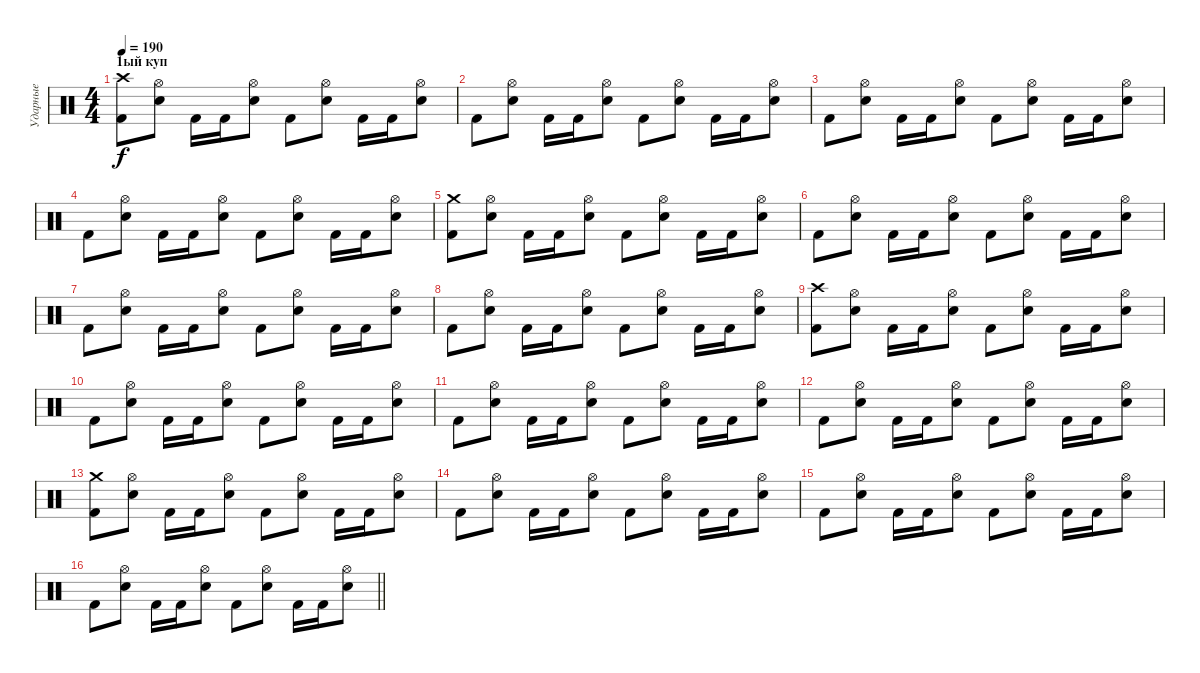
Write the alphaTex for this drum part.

\track ("Ударные" "Ударные") {instrument percussion}
\staff {score}
\articulation defaults
\ts (4 4)
\section ("" "1ый куп")
\tempo 190
\clef neutral
\ks c
("Crash high (hit)" "Kick (hit) 2").8{dy f} ("Hi-Hat (open)" "Electric Snare (hit)").8 "Kick (hit) 2".16 "Kick (hit) 2".16 ("Hi-Hat (open)" "Electric Snare (hit)").8 "Kick (hit) 2".8 ("Hi-Hat (open)" "Electric Snare (hit)").8 "Kick (hit) 2".16 "Kick (hit) 2".16 ("Hi-Hat (open)" "Electric Snare (hit)").8 |
"Kick (hit) 2".8 ("Hi-Hat (open)" "Electric Snare (hit)").8 "Kick (hit) 2".16 "Kick (hit) 2".16 ("Hi-Hat (open)" "Electric Snare (hit)").8 "Kick (hit) 2".8 ("Hi-Hat (open)" "Electric Snare (hit)").8 "Kick (hit) 2".16 "Kick (hit) 2".16 ("Hi-Hat (open)" "Electric Snare (hit)").8 |
"Kick (hit) 2".8 ("Hi-Hat (open)" "Electric Snare (hit)").8 "Kick (hit) 2".16 "Kick (hit) 2".16 ("Hi-Hat (open)" "Electric Snare (hit)").8 "Kick (hit) 2".8 ("Hi-Hat (open)" "Electric Snare (hit)").8 "Kick (hit) 2".16 "Kick (hit) 2".16 ("Hi-Hat (open)" "Electric Snare (hit)").8 |
"Kick (hit) 2".8 ("Hi-Hat (open)" "Electric Snare (hit)").8 "Kick (hit) 2".16 "Kick (hit) 2".16 ("Hi-Hat (open)" "Electric Snare (hit)").8 "Kick (hit) 2".8 ("Hi-Hat (open)" "Electric Snare (hit)").8 "Kick (hit) 2".16 "Kick (hit) 2".16 ("Hi-Hat (open)" "Electric Snare (hit)").8 |
("Crash medium (hit)" "Kick (hit) 2").8 ("Hi-Hat (open)" "Electric Snare (hit)").8 "Kick (hit) 2".16 "Kick (hit) 2".16 ("Hi-Hat (open)" "Electric Snare (hit)").8 "Kick (hit) 2".8 ("Hi-Hat (open)" "Electric Snare (hit)").8 "Kick (hit) 2".16 "Kick (hit) 2".16 ("Hi-Hat (open)" "Electric Snare (hit)").8 |
"Kick (hit) 2".8 ("Hi-Hat (open)" "Electric Snare (hit)").8 "Kick (hit) 2".16 "Kick (hit) 2".16 ("Hi-Hat (open)" "Electric Snare (hit)").8 "Kick (hit) 2".8 ("Hi-Hat (open)" "Electric Snare (hit)").8 "Kick (hit) 2".16 "Kick (hit) 2".16 ("Hi-Hat (open)" "Electric Snare (hit)").8 |
"Kick (hit) 2".8 ("Hi-Hat (open)" "Electric Snare (hit)").8 "Kick (hit) 2".16 "Kick (hit) 2".16 ("Hi-Hat (open)" "Electric Snare (hit)").8 "Kick (hit) 2".8 ("Hi-Hat (open)" "Electric Snare (hit)").8 "Kick (hit) 2".16 "Kick (hit) 2".16 ("Hi-Hat (open)" "Electric Snare (hit)").8 |
"Kick (hit) 2".8 ("Hi-Hat (open)" "Electric Snare (hit)").8 "Kick (hit) 2".16 "Kick (hit) 2".16 ("Hi-Hat (open)" "Electric Snare (hit)").8 "Kick (hit) 2".8 ("Hi-Hat (open)" "Electric Snare (hit)").8 "Kick (hit) 2".16 "Kick (hit) 2".16 ("Hi-Hat (open)" "Electric Snare (hit)").8 |
("Crash high (hit)" "Kick (hit) 2").8 ("Hi-Hat (open)" "Electric Snare (hit)").8 "Kick (hit) 2".16 "Kick (hit) 2".16 ("Hi-Hat (open)" "Electric Snare (hit)").8 "Kick (hit) 2".8 ("Hi-Hat (open)" "Electric Snare (hit)").8 "Kick (hit) 2".16 "Kick (hit) 2".16 ("Hi-Hat (open)" "Electric Snare (hit)").8 |
"Kick (hit) 2".8 ("Hi-Hat (open)" "Electric Snare (hit)").8 "Kick (hit) 2".16 "Kick (hit) 2".16 ("Hi-Hat (open)" "Electric Snare (hit)").8 "Kick (hit) 2".8 ("Hi-Hat (open)" "Electric Snare (hit)").8 "Kick (hit) 2".16 "Kick (hit) 2".16 ("Hi-Hat (open)" "Electric Snare (hit)").8 |
"Kick (hit) 2".8 ("Hi-Hat (open)" "Electric Snare (hit)").8 "Kick (hit) 2".16 "Kick (hit) 2".16 ("Hi-Hat (open)" "Electric Snare (hit)").8 "Kick (hit) 2".8 ("Hi-Hat (open)" "Electric Snare (hit)").8 "Kick (hit) 2".16 "Kick (hit) 2".16 ("Hi-Hat (open)" "Electric Snare (hit)").8 |
"Kick (hit) 2".8 ("Hi-Hat (open)" "Electric Snare (hit)").8 "Kick (hit) 2".16 "Kick (hit) 2".16 ("Hi-Hat (open)" "Electric Snare (hit)").8 "Kick (hit) 2".8 ("Hi-Hat (open)" "Electric Snare (hit)").8 "Kick (hit) 2".16 "Kick (hit) 2".16 ("Hi-Hat (open)" "Electric Snare (hit)").8 |
("Crash medium (hit)" "Kick (hit) 2").8 ("Hi-Hat (open)" "Electric Snare (hit)").8 "Kick (hit) 2".16 "Kick (hit) 2".16 ("Hi-Hat (open)" "Electric Snare (hit)").8 "Kick (hit) 2".8 ("Hi-Hat (open)" "Electric Snare (hit)").8 "Kick (hit) 2".16 "Kick (hit) 2".16 ("Hi-Hat (open)" "Electric Snare (hit)").8 |
"Kick (hit) 2".8 ("Hi-Hat (open)" "Electric Snare (hit)").8 "Kick (hit) 2".16 "Kick (hit) 2".16 ("Hi-Hat (open)" "Electric Snare (hit)").8 "Kick (hit) 2".8 ("Hi-Hat (open)" "Electric Snare (hit)").8 "Kick (hit) 2".16 "Kick (hit) 2".16 ("Hi-Hat (open)" "Electric Snare (hit)").8 |
"Kick (hit) 2".8 ("Hi-Hat (open)" "Electric Snare (hit)").8 "Kick (hit) 2".16 "Kick (hit) 2".16 ("Hi-Hat (open)" "Electric Snare (hit)").8 "Kick (hit) 2".8 ("Hi-Hat (open)" "Electric Snare (hit)").8 "Kick (hit) 2".16 "Kick (hit) 2".16 ("Hi-Hat (open)" "Electric Snare (hit)").8 |
\barLineRight lightlight "Kick (hit) 2".8
("Hi-Hat (open)" "Electric Snare (hit)").8 "Kick (hit) 2".16 "Kick (hit) 2".16 ("Hi-Hat (open)" "Electric Snare (hit)").8 "Kick (hit) 2".8 ("Hi-Hat (open)" "Electric Snare (hit)").8 "Kick (hit) 2".16 "Kick (hit) 2".16 ("Hi-Hat (open)" "Electric Snare (hit)").8
